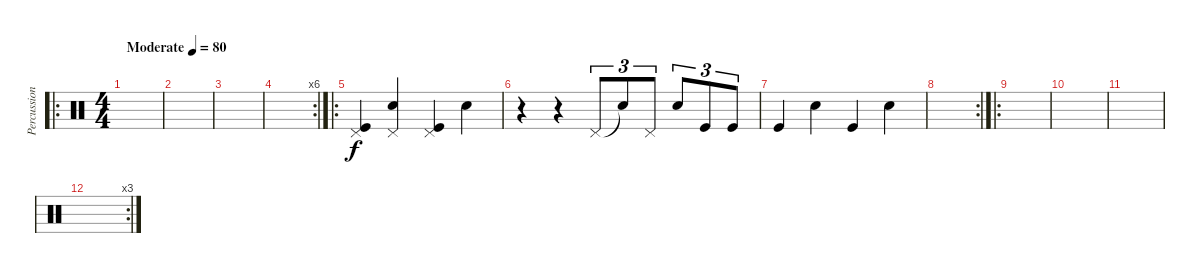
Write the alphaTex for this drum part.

\track ("Percussion" "Percussion") {instrument percussion}
\staff {score}
\articulation defaults
\ro
\ts (4 4)
\tempo (80 "Moderate")
\clef neutral
\ks c
|
|
|
\rc 6
|
\ro
("Kick (hit)" "Pedal Hi-Hat (hit)").4 ("Electric Snare (hit)" "Pedal Hi-Hat (hit)").4 ("Kick (hit)" "Pedal Hi-Hat (hit)").4 "Snare (hit)".4 |
r.4 r.4 "Pedal Hi-Hat (hit)".8{tu (3 2)} "Snare (hit)"{t}.8{tu (3 2)} "Pedal Hi-Hat (hit)".8{tu (3 2)} "Electric Snare (hit)".8{tu (3 2)} "Kick (hit)".8{tu (3 2)} "Kick (hit)".8{tu (3 2)} |
"Kick (hit)".4 "Electric Snare (hit)".4 "Kick (hit)".4 "Snare (hit)".4 |
\rc 2
|
\ro
|
|
|
\rc 3
